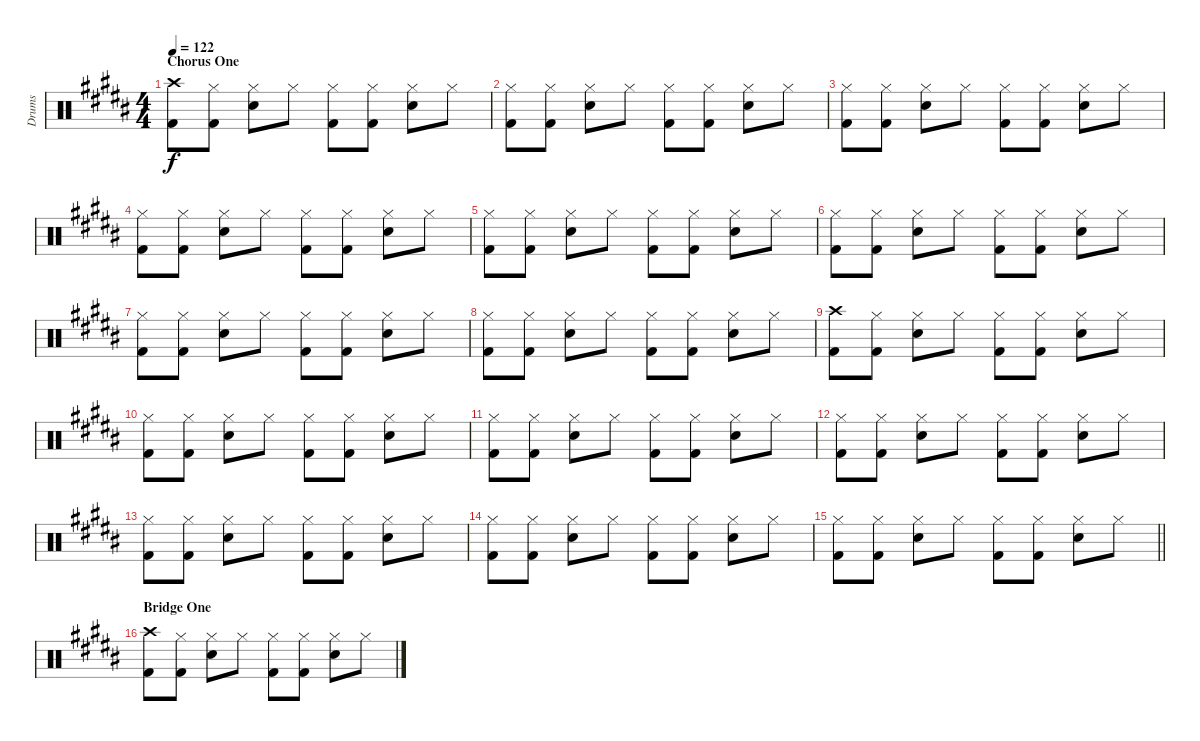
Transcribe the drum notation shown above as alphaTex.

\track ("Drums" "Drums") {instrument percussion}
\staff {score}
\articulation defaults
\ts (4 4)
\section ("" "Chorus One")
\tempo 122
\clef neutral
\ks b
("Crash high (hit)" "Kick (hit) 2").8{dy f} ("Hi-Hat (closed)" "Kick (hit) 2").8 ("Hi-Hat (closed)" "Snare (hit) 2").8 "Hi-Hat (closed)".8 ("Hi-Hat (closed)" "Kick (hit) 2").8 ("Hi-Hat (closed)" "Kick (hit) 2").8 ("Hi-Hat (closed)" "Snare (hit) 2").8 "Hi-Hat (closed)".8 |
("Hi-Hat (closed)" "Kick (hit) 2").8 ("Hi-Hat (closed)" "Kick (hit) 2").8 ("Hi-Hat (closed)" "Snare (hit) 2").8 "Hi-Hat (closed)".8 ("Hi-Hat (closed)" "Kick (hit) 2").8 ("Hi-Hat (closed)" "Kick (hit) 2").8 ("Hi-Hat (closed)" "Snare (hit) 2").8 "Hi-Hat (closed)".8 |
("Hi-Hat (closed)" "Kick (hit) 2").8 ("Hi-Hat (closed)" "Kick (hit) 2").8 ("Hi-Hat (closed)" "Snare (hit) 2").8 "Hi-Hat (closed)".8 ("Hi-Hat (closed)" "Kick (hit) 2").8 ("Hi-Hat (closed)" "Kick (hit) 2").8 ("Hi-Hat (closed)" "Snare (hit) 2").8 "Hi-Hat (closed)".8 |
("Hi-Hat (closed)" "Kick (hit) 2").8 ("Hi-Hat (closed)" "Kick (hit) 2").8 ("Hi-Hat (closed)" "Snare (hit) 2").8 "Hi-Hat (closed)".8 ("Hi-Hat (closed)" "Kick (hit) 2").8 ("Hi-Hat (closed)" "Kick (hit) 2").8 ("Hi-Hat (closed)" "Snare (hit) 2").8 "Hi-Hat (closed)".8 |
("Hi-Hat (closed)" "Kick (hit) 2").8 ("Hi-Hat (closed)" "Kick (hit) 2").8 ("Hi-Hat (closed)" "Snare (hit) 2").8 "Hi-Hat (closed)".8 ("Hi-Hat (closed)" "Kick (hit) 2").8 ("Hi-Hat (closed)" "Kick (hit) 2").8 ("Hi-Hat (closed)" "Snare (hit) 2").8 "Hi-Hat (closed)".8 |
("Hi-Hat (closed)" "Kick (hit) 2").8 ("Hi-Hat (closed)" "Kick (hit) 2").8 ("Hi-Hat (closed)" "Snare (hit) 2").8 "Hi-Hat (closed)".8 ("Hi-Hat (closed)" "Kick (hit) 2").8 ("Hi-Hat (closed)" "Kick (hit) 2").8 ("Hi-Hat (closed)" "Snare (hit) 2").8 "Hi-Hat (closed)".8 |
("Hi-Hat (closed)" "Kick (hit) 2").8 ("Hi-Hat (closed)" "Kick (hit) 2").8 ("Hi-Hat (closed)" "Snare (hit) 2").8 "Hi-Hat (closed)".8 ("Hi-Hat (closed)" "Kick (hit) 2").8 ("Hi-Hat (closed)" "Kick (hit) 2").8 ("Hi-Hat (closed)" "Snare (hit) 2").8 "Hi-Hat (closed)".8 |
("Hi-Hat (closed)" "Kick (hit) 2").8 ("Hi-Hat (closed)" "Kick (hit) 2").8 ("Hi-Hat (closed)" "Snare (hit) 2").8 "Hi-Hat (closed)".8 ("Hi-Hat (closed)" "Kick (hit) 2").8 ("Hi-Hat (closed)" "Kick (hit) 2").8 ("Hi-Hat (closed)" "Snare (hit) 2").8 "Hi-Hat (closed)".8 |
("Crash high (hit)" "Kick (hit) 2").8 ("Hi-Hat (closed)" "Kick (hit) 2").8 ("Hi-Hat (closed)" "Snare (hit) 2").8 "Hi-Hat (closed)".8 ("Hi-Hat (closed)" "Kick (hit) 2").8 ("Hi-Hat (closed)" "Kick (hit) 2").8 ("Hi-Hat (closed)" "Snare (hit) 2").8 "Hi-Hat (closed)".8 |
("Hi-Hat (closed)" "Kick (hit) 2").8 ("Hi-Hat (closed)" "Kick (hit) 2").8 ("Hi-Hat (closed)" "Snare (hit) 2").8 "Hi-Hat (closed)".8 ("Hi-Hat (closed)" "Kick (hit) 2").8 ("Hi-Hat (closed)" "Kick (hit) 2").8 ("Hi-Hat (closed)" "Snare (hit) 2").8 "Hi-Hat (closed)".8 |
("Hi-Hat (closed)" "Kick (hit) 2").8 ("Hi-Hat (closed)" "Kick (hit) 2").8 ("Hi-Hat (closed)" "Snare (hit) 2").8 "Hi-Hat (closed)".8 ("Hi-Hat (closed)" "Kick (hit) 2").8 ("Hi-Hat (closed)" "Kick (hit) 2").8 ("Hi-Hat (closed)" "Snare (hit) 2").8 "Hi-Hat (closed)".8 |
("Hi-Hat (closed)" "Kick (hit) 2").8 ("Hi-Hat (closed)" "Kick (hit) 2").8 ("Hi-Hat (closed)" "Snare (hit) 2").8 "Hi-Hat (closed)".8 ("Hi-Hat (closed)" "Kick (hit) 2").8 ("Hi-Hat (closed)" "Kick (hit) 2").8 ("Hi-Hat (closed)" "Snare (hit) 2").8 "Hi-Hat (closed)".8 |
("Hi-Hat (closed)" "Kick (hit) 2").8 ("Hi-Hat (closed)" "Kick (hit) 2").8 ("Hi-Hat (closed)" "Snare (hit) 2").8 "Hi-Hat (closed)".8 ("Hi-Hat (closed)" "Kick (hit) 2").8 ("Hi-Hat (closed)" "Kick (hit) 2").8 ("Hi-Hat (closed)" "Snare (hit) 2").8 "Hi-Hat (closed)".8 |
("Hi-Hat (closed)" "Kick (hit) 2").8 ("Hi-Hat (closed)" "Kick (hit) 2").8 ("Hi-Hat (closed)" "Snare (hit) 2").8 "Hi-Hat (closed)".8 ("Hi-Hat (closed)" "Kick (hit) 2").8 ("Hi-Hat (closed)" "Kick (hit) 2").8 ("Hi-Hat (closed)" "Snare (hit) 2").8 "Hi-Hat (closed)".8 |
\barLineRight lightlight
("Hi-Hat (closed)" "Kick (hit) 2").8 ("Hi-Hat (closed)" "Kick (hit) 2").8 ("Hi-Hat (closed)" "Snare (hit) 2").8 "Hi-Hat (closed)".8 ("Hi-Hat (closed)" "Kick (hit) 2").8 ("Hi-Hat (closed)" "Kick (hit) 2").8 ("Hi-Hat (closed)" "Snare (hit) 2").8 "Hi-Hat (closed)".8 |
\section ("" "Bridge One")
("Crash high (hit)" "Kick (hit) 2").8 ("Hi-Hat (closed)" "Kick (hit) 2").8 ("Hi-Hat (closed)" "Snare (hit) 2").8 "Hi-Hat (closed)".8 ("Hi-Hat (closed)" "Kick (hit) 2").8 ("Hi-Hat (closed)" "Kick (hit) 2").8 ("Hi-Hat (closed)" "Snare (hit) 2").8 "Hi-Hat (closed)".8
